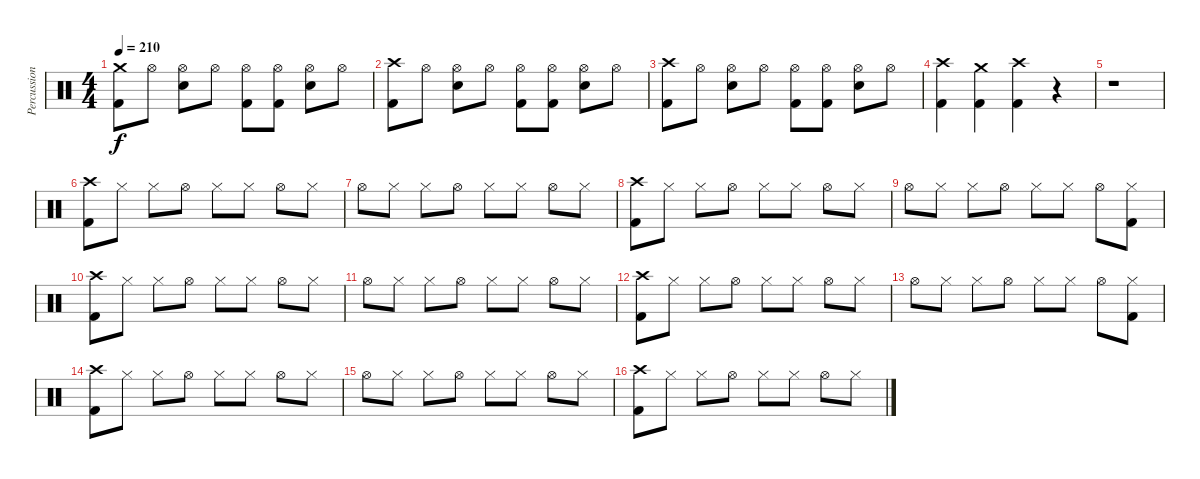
\track ("Percussion" "Percussion") {instrument percussion}
\staff {score}
\articulation defaults
\ts (4 4)
\tempo 210
\clef neutral
\ks c
("Crash medium (hit)" "Kick (hit) 2").8{dy f} "Hi-Hat (open)".8 ("Hi-Hat (open)" "Snare (hit) 2").8 "Hi-Hat (open)".8 ("Hi-Hat (open)" "Kick (hit) 2").8 ("Hi-Hat (open)" "Kick (hit) 2").8 ("Hi-Hat (open)" "Snare (hit) 2").8 "Hi-Hat (open)".8 |
("Crash high (hit)" "Kick (hit) 2").8 "Hi-Hat (open)".8 ("Hi-Hat (open)" "Snare (hit) 2").8 "Hi-Hat (open)".8 ("Hi-Hat (open)" "Kick (hit) 2").8 ("Hi-Hat (open)" "Kick (hit) 2").8 ("Hi-Hat (open)" "Snare (hit) 2").8 "Hi-Hat (open)".8 |
("Crash high (hit)" "Kick (hit) 2").8 "Hi-Hat (open)".8 ("Hi-Hat (open)" "Snare (hit) 2").8 "Hi-Hat (open)".8 ("Hi-Hat (open)" "Kick (hit) 2").8 ("Hi-Hat (open)" "Kick (hit) 2").8 ("Hi-Hat (open)" "Snare (hit) 2").8 "Hi-Hat (open)".8 |
("Crash high (hit)" "Kick (hit) 2").4 ("Crash medium (hit)" "Kick (hit) 2").4 ("Crash high (hit)" "Kick (hit) 2").4 r.4 |
r.1 |
("Crash high (hit)" "Kick (hit) 2").8 "Hi-Hat (closed)".8 "Hi-Hat (closed)".8 "Hi-Hat (open)".8 "Hi-Hat (closed)".8 "Hi-Hat (closed)".8 "Hi-Hat (open)".8 "Hi-Hat (closed)".8 |
"Hi-Hat (open)".8 "Hi-Hat (closed)".8 "Hi-Hat (closed)".8 "Hi-Hat (open)".8 "Hi-Hat (closed)".8 "Hi-Hat (closed)".8 "Hi-Hat (open)".8 "Hi-Hat (closed)".8 |
("Crash high (hit)" "Kick (hit) 2").8 "Hi-Hat (closed)".8 "Hi-Hat (closed)".8 "Hi-Hat (open)".8 "Hi-Hat (closed)".8 "Hi-Hat (closed)".8 "Hi-Hat (open)".8 "Hi-Hat (closed)".8 |
"Hi-Hat (open)".8 "Hi-Hat (closed)".8 "Hi-Hat (closed)".8 "Hi-Hat (open)".8 "Hi-Hat (closed)".8 "Hi-Hat (closed)".8 "Hi-Hat (open)".8 ("Hi-Hat (closed)" "Kick (hit) 2").8 |
("Crash high (hit)" "Kick (hit) 2").8 "Hi-Hat (closed)".8 "Hi-Hat (closed)".8 "Hi-Hat (open)".8 "Hi-Hat (closed)".8 "Hi-Hat (closed)".8 "Hi-Hat (open)".8 "Hi-Hat (closed)".8 |
"Hi-Hat (open)".8 "Hi-Hat (closed)".8 "Hi-Hat (closed)".8 "Hi-Hat (open)".8 "Hi-Hat (closed)".8 "Hi-Hat (closed)".8 "Hi-Hat (open)".8 "Hi-Hat (closed)".8 |
("Crash high (hit)" "Kick (hit) 2").8 "Hi-Hat (closed)".8 "Hi-Hat (closed)".8 "Hi-Hat (open)".8 "Hi-Hat (closed)".8 "Hi-Hat (closed)".8 "Hi-Hat (open)".8 "Hi-Hat (closed)".8 |
"Hi-Hat (open)".8 "Hi-Hat (closed)".8 "Hi-Hat (closed)".8 "Hi-Hat (open)".8 "Hi-Hat (closed)".8 "Hi-Hat (closed)".8 "Hi-Hat (open)".8 ("Hi-Hat (closed)" "Kick (hit) 2").8 |
("Crash high (hit)" "Kick (hit) 2").8 "Hi-Hat (closed)".8 "Hi-Hat (closed)".8 "Hi-Hat (open)".8 "Hi-Hat (closed)".8 "Hi-Hat (closed)".8 "Hi-Hat (open)".8 "Hi-Hat (closed)".8 |
"Hi-Hat (open)".8 "Hi-Hat (closed)".8 "Hi-Hat (closed)".8 "Hi-Hat (open)".8 "Hi-Hat (closed)".8 "Hi-Hat (closed)".8 "Hi-Hat (open)".8 "Hi-Hat (closed)".8 |
("Crash high (hit)" "Kick (hit) 2").8 "Hi-Hat (closed)".8 "Hi-Hat (closed)".8 "Hi-Hat (open)".8 "Hi-Hat (closed)".8 "Hi-Hat (closed)".8 "Hi-Hat (open)".8 "Hi-Hat (closed)".8
